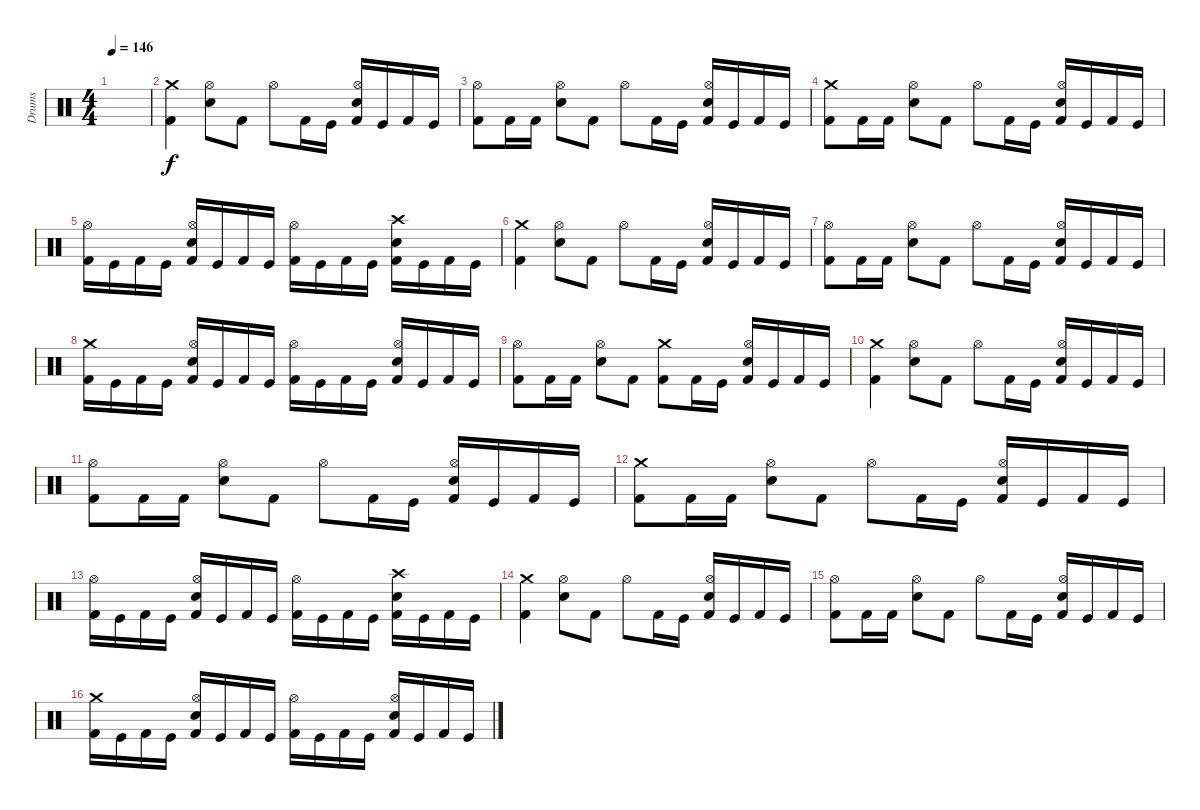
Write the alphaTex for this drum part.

\track ("Drums" "Drums") {instrument percussion}
\staff {score}
\articulation defaults
\ts (4 4)
\tempo 146
\clef neutral
\ks c
|
("Crash medium (hit)" "Kick (hit) 2").4 ("Hi-Hat (open)" "Snare (hit) 2").8 "Kick (hit) 2".8 "Hi-Hat (open)".8 "Kick (hit) 2".16 "Kick (hit)".16 ("Hi-Hat (open)" "Snare (hit) 2" "Kick (hit) 2").16 "Kick (hit)".16 "Kick (hit) 2".16 "Kick (hit)".16 |
("Hi-Hat (open)" "Kick (hit) 2").8 "Kick (hit) 2".16 "Kick (hit) 2".16 ("Hi-Hat (open)" "Snare (hit) 2").8 "Kick (hit) 2".8 "Hi-Hat (open)".8 "Kick (hit) 2".16 "Kick (hit)".16 ("Hi-Hat (open)" "Snare (hit) 2" "Kick (hit) 2").16 "Kick (hit)".16 "Kick (hit) 2".16 "Kick (hit)".16 |
("Crash medium (hit)" "Kick (hit) 2").8 "Kick (hit) 2".16 "Kick (hit) 2".16 ("Hi-Hat (open)" "Snare (hit) 2").8 "Kick (hit) 2".8 "Hi-Hat (open)".8 "Kick (hit) 2".16 "Kick (hit)".16 ("Hi-Hat (open)" "Snare (hit) 2" "Kick (hit) 2").16 "Kick (hit)".16 "Kick (hit) 2".16 "Kick (hit)".16 |
("Hi-Hat (open)" "Kick (hit) 2").16 "Kick (hit)".16 "Kick (hit) 2".16 "Kick (hit)".16 ("Hi-Hat (open)" "Snare (hit) 2" "Kick (hit) 2").16 "Kick (hit)".16 "Kick (hit) 2".16 "Kick (hit)".16 ("Hi-Hat (open)" "Kick (hit) 2").16 "Kick (hit)".16 "Kick (hit) 2".16 "Kick (hit)".16 ("Crash high (hit)" "Snare (hit) 2" "Kick (hit) 2").16 "Kick (hit)".16 "Kick (hit) 2".16 "Kick (hit)".16 |
("Crash medium (hit)" "Kick (hit) 2").4 ("Hi-Hat (open)" "Snare (hit) 2").8 "Kick (hit) 2".8 "Hi-Hat (open)".8 "Kick (hit) 2".16 "Kick (hit)".16 ("Hi-Hat (open)" "Snare (hit) 2" "Kick (hit) 2").16 "Kick (hit)".16 "Kick (hit) 2".16 "Kick (hit)".16 |
("Hi-Hat (open)" "Kick (hit) 2").8 "Kick (hit) 2".16 "Kick (hit) 2".16 ("Hi-Hat (open)" "Snare (hit) 2").8 "Kick (hit) 2".8 "Hi-Hat (open)".8 "Kick (hit) 2".16 "Kick (hit)".16 ("Hi-Hat (open)" "Snare (hit) 2" "Kick (hit) 2").16 "Kick (hit)".16 "Kick (hit) 2".16 "Kick (hit)".16 |
("Crash medium (hit)" "Kick (hit) 2").16 "Kick (hit)".16 "Kick (hit) 2".16 "Kick (hit)".16 ("Hi-Hat (open)" "Snare (hit) 2" "Kick (hit) 2").16 "Kick (hit)".16 "Kick (hit) 2".16 "Kick (hit)".16 ("Hi-Hat (open)" "Kick (hit) 2").16 "Kick (hit)".16 "Kick (hit) 2".16 "Kick (hit)".16 ("Hi-Hat (open)" "Snare (hit) 2" "Kick (hit) 2").16 "Kick (hit)".16 "Kick (hit) 2".16 "Kick (hit)".16 |
("Hi-Hat (open)" "Kick (hit) 2").8 "Kick (hit) 2".16 "Kick (hit) 2".16 ("Hi-Hat (open)" "Snare (hit) 2").8 "Kick (hit) 2".8 ("Crash medium (hit)" "Kick (hit) 2").8 "Kick (hit) 2".16 "Kick (hit)".16 ("Hi-Hat (open)" "Snare (hit) 2" "Kick (hit) 2").16 "Kick (hit)".16 "Kick (hit) 2".16 "Kick (hit)".16 |
("Crash medium (hit)" "Kick (hit) 2").4 ("Hi-Hat (open)" "Snare (hit) 2").8 "Kick (hit) 2".8 "Hi-Hat (open)".8 "Kick (hit) 2".16 "Kick (hit)".16 ("Hi-Hat (open)" "Snare (hit) 2" "Kick (hit) 2").16 "Kick (hit)".16 "Kick (hit) 2".16 "Kick (hit)".16 |
("Hi-Hat (open)" "Kick (hit) 2").8 "Kick (hit) 2".16 "Kick (hit) 2".16 ("Hi-Hat (open)" "Snare (hit) 2").8 "Kick (hit) 2".8 "Hi-Hat (open)".8 "Kick (hit) 2".16 "Kick (hit)".16 ("Hi-Hat (open)" "Snare (hit) 2" "Kick (hit) 2").16 "Kick (hit)".16 "Kick (hit) 2".16 "Kick (hit)".16 |
("Crash medium (hit)" "Kick (hit) 2").8 "Kick (hit) 2".16 "Kick (hit) 2".16 ("Hi-Hat (open)" "Snare (hit) 2").8 "Kick (hit) 2".8 "Hi-Hat (open)".8 "Kick (hit) 2".16 "Kick (hit)".16 ("Hi-Hat (open)" "Snare (hit) 2" "Kick (hit) 2").16 "Kick (hit)".16 "Kick (hit) 2".16 "Kick (hit)".16 |
("Hi-Hat (open)" "Kick (hit) 2").16 "Kick (hit)".16 "Kick (hit) 2".16 "Kick (hit)".16 ("Hi-Hat (open)" "Snare (hit) 2" "Kick (hit) 2").16 "Kick (hit)".16 "Kick (hit) 2".16 "Kick (hit)".16 ("Hi-Hat (open)" "Kick (hit) 2").16 "Kick (hit)".16 "Kick (hit) 2".16 "Kick (hit)".16 ("Crash high (hit)" "Snare (hit) 2" "Kick (hit) 2").16 "Kick (hit)".16 "Kick (hit) 2".16 "Kick (hit)".16 |
("Crash medium (hit)" "Kick (hit) 2").4 ("Hi-Hat (open)" "Snare (hit) 2").8 "Kick (hit) 2".8 "Hi-Hat (open)".8 "Kick (hit) 2".16 "Kick (hit)".16 ("Hi-Hat (open)" "Snare (hit) 2" "Kick (hit) 2").16 "Kick (hit)".16 "Kick (hit) 2".16 "Kick (hit)".16 |
("Hi-Hat (open)" "Kick (hit) 2").8 "Kick (hit) 2".16 "Kick (hit) 2".16 ("Hi-Hat (open)" "Snare (hit) 2").8 "Kick (hit) 2".8 "Hi-Hat (open)".8 "Kick (hit) 2".16 "Kick (hit)".16 ("Hi-Hat (open)" "Snare (hit) 2" "Kick (hit) 2").16 "Kick (hit)".16 "Kick (hit) 2".16 "Kick (hit)".16 |
("Crash medium (hit)" "Kick (hit) 2").16 "Kick (hit)".16 "Kick (hit) 2".16 "Kick (hit)".16 ("Hi-Hat (open)" "Snare (hit) 2" "Kick (hit) 2").16 "Kick (hit)".16 "Kick (hit) 2".16 "Kick (hit)".16 ("Hi-Hat (open)" "Kick (hit) 2").16 "Kick (hit)".16 "Kick (hit) 2".16 "Kick (hit)".16 ("Hi-Hat (open)" "Snare (hit) 2" "Kick (hit) 2").16 "Kick (hit)".16 "Kick (hit) 2".16 "Kick (hit)".16
